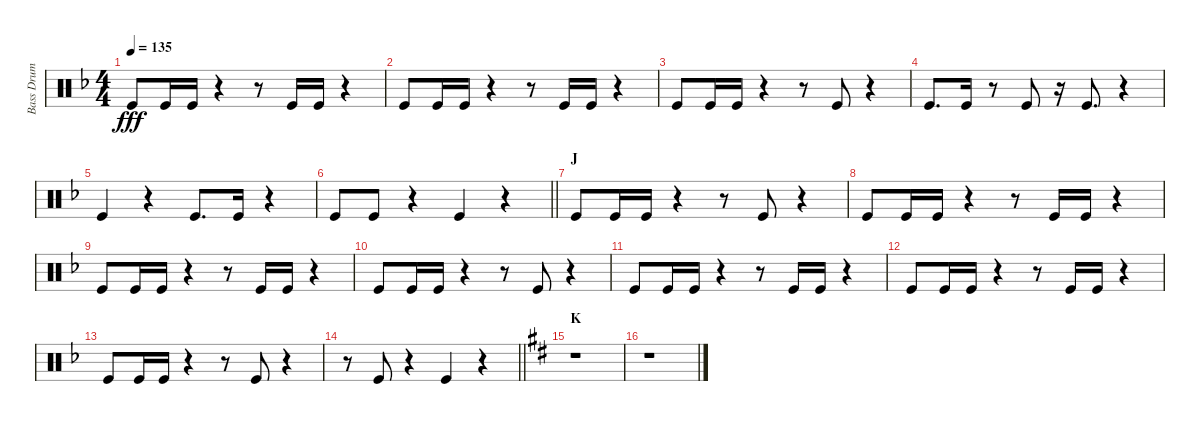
\track ("Bass Drum" "Bass Drum") {instrument percussion}
\staff {score}
\articulation defaults
\ts (4 4)
\tempo 135
\clef neutral
\ks f "Kick (hit)".8{dy fff} "Kick (hit)".16 "Kick (hit)".16
r.4 r.8 "Kick (hit)".16 "Kick (hit)".16 r.4 |
"Kick (hit)".8 "Kick (hit)".16 "Kick (hit)".16 r.4 r.8 "Kick (hit)".16 "Kick (hit)".16 r.4 |
"Kick (hit)".8 "Kick (hit)".16 "Kick (hit)".16 r.4 r.8 "Kick (hit)".8 r.4 |
"Kick (hit)".8{d} "Kick (hit)".16 r.8 "Kick (hit)".8 r.16 "Kick (hit)".8{d} r.4 |
"Kick (hit)".4 r.4 "Kick (hit)".8{d} "Kick (hit)".16 r.4 |
\barLineRight lightlight "Kick (hit)".8 "Kick (hit)".8
r.4 "Kick (hit)".4 r.4 |
\section ("" "J")
"Kick (hit)".8 "Kick (hit)".16 "Kick (hit)".16 r.4 r.8 "Kick (hit)".8 r.4 |
"Kick (hit)".8 "Kick (hit)".16 "Kick (hit)".16 r.4 r.8 "Kick (hit)".16 "Kick (hit)".16 r.4 |
"Kick (hit)".8 "Kick (hit)".16 "Kick (hit)".16 r.4 r.8 "Kick (hit)".16 "Kick (hit)".16 r.4 |
"Kick (hit)".8 "Kick (hit)".16 "Kick (hit)".16 r.4 r.8 "Kick (hit)".8 r.4 |
"Kick (hit)".8 "Kick (hit)".16 "Kick (hit)".16 r.4 r.8 "Kick (hit)".16 "Kick (hit)".16 r.4 |
"Kick (hit)".8 "Kick (hit)".16 "Kick (hit)".16 r.4 r.8 "Kick (hit)".16 "Kick (hit)".16 r.4 |
"Kick (hit)".8 "Kick (hit)".16 "Kick (hit)".16 r.4 r.8 "Kick (hit)".8 r.4 |
\barLineRight lightlight
r.8 "Kick (hit)".8 r.4 "Kick (hit)".4 r.4 |
\section ("" "K")
\ks d
r.1 |
r.1
